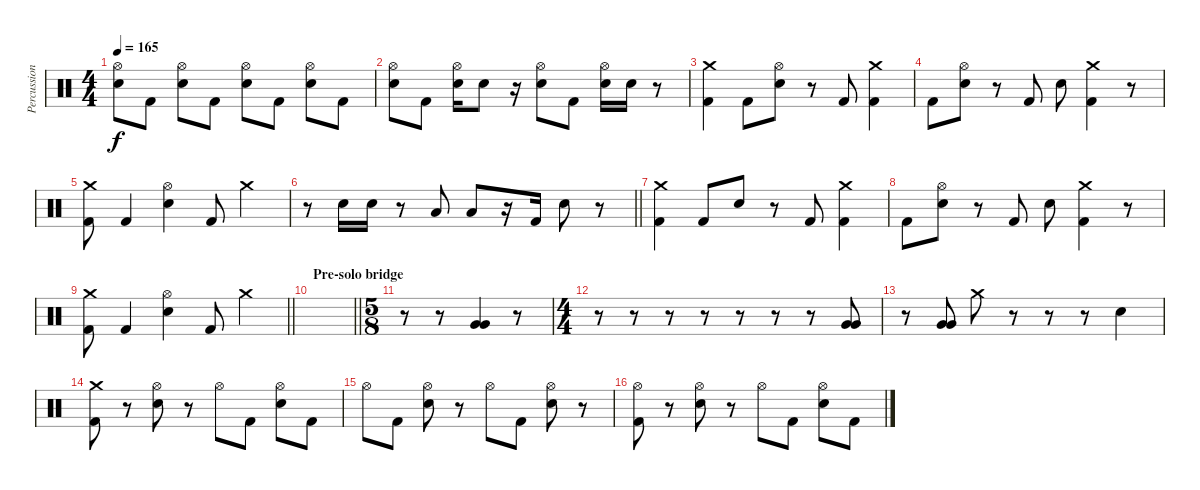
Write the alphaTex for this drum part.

\track ("Percussion" "Percussion") {instrument percussion}
\staff {score}
\articulation defaults
\ts (4 4)
\tempo 165
\clef neutral
\ks c
("Hi-Hat (open)" "Electric Snare (hit)").8{dy f} "Kick (hit) 2".8 ("Hi-Hat (open)" "Electric Snare (hit)").8 "Kick (hit) 2".8 ("Hi-Hat (open)" "Electric Snare (hit)").8 "Kick (hit) 2".8 ("Hi-Hat (open)" "Electric Snare (hit)").8 "Kick (hit) 2".8 |
("Hi-Hat (open)" "Electric Snare (hit)").8 "Kick (hit) 2".8 ("Hi-Hat (open)" "Electric Snare (hit)").16 "Electric Snare (hit)".8 r.16 ("Hi-Hat (open)" "Electric Snare (hit)").8 "Kick (hit) 2".8 ("Hi-Hat (open)" "Electric Snare (hit)").16 "Electric Snare (hit)".16 r.8 |
("Crash medium (hit)" "Kick (hit) 2").4 "Kick (hit) 2".8 ("Hi-Hat (open)" "Electric Snare (hit)").8 r.8 "Kick (hit) 2".8 ("Crash medium (hit)" "Kick (hit) 2").4 |
"Kick (hit) 2".8 ("Hi-Hat (open)" "Electric Snare (hit)").8 r.8 "Kick (hit) 2".8 "Electric Snare (hit)".8 ("Crash medium (hit)" "Kick (hit) 2").4 r.8 |
("Crash medium (hit)" "Kick (hit) 2").8 "Kick (hit) 2".4 ("Hi-Hat (open)" "Electric Snare (hit)").4 "Kick (hit) 2".8 "Crash medium (hit)".4 |
\barLineRight lightlight
r.8 "Electric Snare (hit)".16 "Electric Snare (hit)".16 r.8 "Low Tom (hit)".8 "Low Tom (hit)".8 r.16 "Kick (hit) 2".16 "Electric Snare (hit)".8 r.8 |
("Crash medium (hit)" "Kick (hit) 2").4 "Kick (hit) 2".8 "Electric Snare (hit)".8 r.8 "Kick (hit) 2".8 ("Crash medium (hit)" "Kick (hit) 2").4 |
"Kick (hit) 2".8 ("Hi-Hat (open)" "Electric Snare (hit)").8 r.8 "Kick (hit) 2".8 "Electric Snare (hit)".8 ("Crash medium (hit)" "Kick (hit) 2").4 r.8 |
\barLineRight lightlight
("Crash medium (hit)" "Kick (hit) 2").8 "Kick (hit) 2".4 ("Hi-Hat (open)" "Electric Snare (hit)").4 "Kick (hit) 2".8 "Crash medium (hit)".4 |
\section ("" "Pre-solo bridge")
\barLineRight lightlight
|
\ts (5 8)
r.8 r.8 ("Very Low Tom (hit)" "Very Low Tom (hit)").4 r.8 |
\ts (4 4)
r.8 r.8 r.8 r.8 r.8 r.8 r.8 ("Very Low Tom (hit)" "Very Low Tom (hit)").8 |
r.8 ("Very Low Tom (hit)" "Very Low Tom (hit)").8 "Crash medium (hit)".8 r.8 r.8 r.8 "Electric Snare (hit)".4 |
("Crash medium (hit)" "Kick (hit) 2").8 r.8 ("Hi-Hat (open)" "Electric Snare (hit)").8 r.8 "Hi-Hat (open)".8 "Kick (hit) 2".8 ("Hi-Hat (open)" "Electric Snare (hit)").8 "Kick (hit) 2".8 |
"Hi-Hat (open)".8 "Kick (hit) 2".8 ("Hi-Hat (open)" "Electric Snare (hit)").8 r.8 "Hi-Hat (open)".8 "Kick (hit) 2".8 ("Hi-Hat (open)" "Electric Snare (hit)").8 r.8 |
("Hi-Hat (open)" "Kick (hit) 2").8 r.8 ("Hi-Hat (open)" "Electric Snare (hit)").8 r.8 "Hi-Hat (open)".8 "Kick (hit) 2".8 ("Hi-Hat (open)" "Electric Snare (hit)").8 "Kick (hit) 2".8
